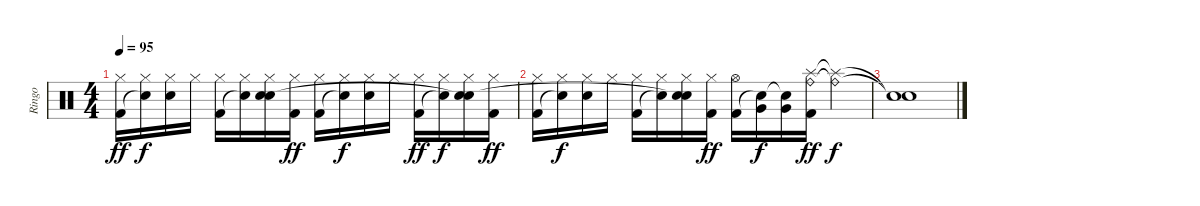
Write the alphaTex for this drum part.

\track ("Ringo" "Ringo") {instrument percussion}
\staff {score}
\articulation defaults
\ts (4 4)
\tempo 95
\clef neutral
\ks c
("Hi-Hat (closed)" "Kick (hit) 2").16{dy ff} ("Hi-Hat (closed)" "Snare (hit)"{t}).16{dy f} ("Hi-Hat (closed)" "Snare (hit) 2").16 "Hi-Hat (closed)".16 ("Hi-Hat (closed)" "Kick (hit) 2").16 ("Hi-Hat (closed)" "Snare (hit)"{t}).16 ("Hi-Hat (closed)" "Snare (hit) 2" "Snare (hit)"{t}).16 ("Hi-Hat (closed)" "Kick (hit) 2").16{dy ff} ("Hi-Hat (closed)" "Kick (hit) 2").16 ("Hi-Hat (closed)" "Snare (hit)"{t}).16{dy f} ("Hi-Hat (closed)" "Snare (hit) 2").16 "Hi-Hat (closed)".16 ("Hi-Hat (closed)" "Kick (hit) 2").16{dy ff} ("Hi-Hat (closed)" "Snare (hit)"{t}).16{dy f} ("Hi-Hat (closed)" "Snare (hit) 2" "Snare (hit)"{t}).16 ("Hi-Hat (closed)" "Kick (hit) 2").16{dy ff} |
("Hi-Hat (closed)" "Kick (hit) 2").16 ("Hi-Hat (closed)" "Snare (hit)"{t}).16{dy f} ("Hi-Hat (closed)" "Snare (hit) 2").16 "Hi-Hat (closed)".16 ("Hi-Hat (closed)" "Kick (hit) 2").16 ("Hi-Hat (closed)" "Snare (hit)"{t}).16 ("Hi-Hat (closed)" "Snare (hit) 2" "Snare (hit)"{t}).16 ("Hi-Hat (closed)" "Kick (hit) 2").16{dy ff} ("Hi-Hat (open)" "Kick (hit) 2").16 ("Very Low Tom (hit)" "Snare (hit)"{t}).16{dy f} ("Very Low Tom (hit)" "Snare (hit)"{t}).16 ("Splash (hit)" "Ride (bell)" "Kick (hit) 2").16{dy ff} ("Splash (hit)"{t} "Ride (bell)"{t}).4{dy f} |
("Snare (hit)"{t} "Snare (hit)"{t}).1
